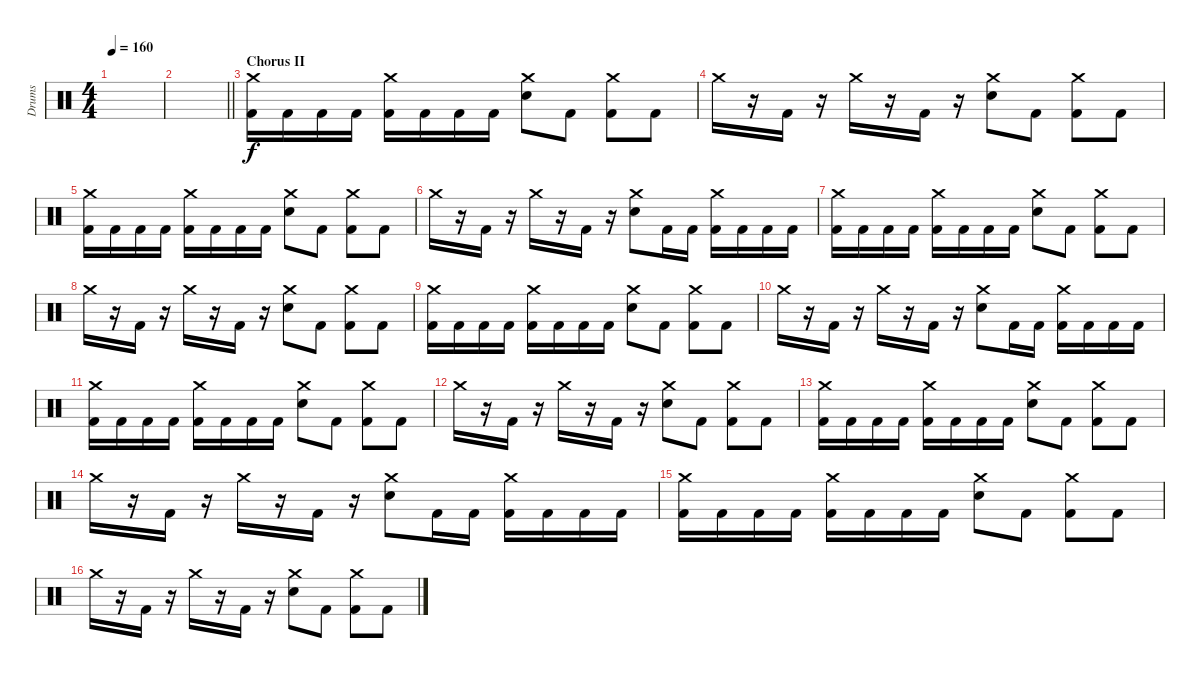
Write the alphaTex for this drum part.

\track ("Drums" "Drums") {instrument percussion}
\staff {score}
\articulation defaults
\ts (4 4)
\tempo 160
\clef neutral
\ks c
|
\barLineRight lightlight
|
\section ("" "Chorus II")
("Crash medium (hit)" "Kick (hit) 2").16 "Kick (hit) 2".16 "Kick (hit) 2".16 "Kick (hit) 2".16 ("Crash medium (hit)" "Kick (hit) 2").16 "Kick (hit) 2".16 "Kick (hit) 2".16 "Kick (hit) 2".16 ("Crash medium (hit)" "Snare (hit) 2").8 "Kick (hit) 2".8 ("Crash medium (hit)" "Kick (hit) 2").8 "Kick (hit) 2".8 |
"Crash medium (hit)".16 r.16 "Kick (hit) 2".16 r.16 "Crash medium (hit)".16 r.16 "Kick (hit) 2".16 r.16 ("Crash medium (hit)" "Snare (hit) 2").8 "Kick (hit) 2".8 ("Crash medium (hit)" "Kick (hit) 2").8 "Kick (hit) 2".8 |
("Crash medium (hit)" "Kick (hit) 2").16 "Kick (hit) 2".16 "Kick (hit) 2".16 "Kick (hit) 2".16 ("Crash medium (hit)" "Kick (hit) 2").16 "Kick (hit) 2".16 "Kick (hit) 2".16 "Kick (hit) 2".16 ("Crash medium (hit)" "Snare (hit) 2").8 "Kick (hit) 2".8 ("Crash medium (hit)" "Kick (hit) 2").8 "Kick (hit) 2".8 |
"Crash medium (hit)".16 r.16 "Kick (hit) 2".16 r.16 "Crash medium (hit)".16 r.16 "Kick (hit) 2".16 r.16 ("Crash medium (hit)" "Snare (hit) 2").8 "Kick (hit) 2".16 "Kick (hit) 2".16 ("Crash medium (hit)" "Kick (hit) 2").16 "Kick (hit) 2".16 "Kick (hit) 2".16 "Kick (hit) 2".16 |
("Crash medium (hit)" "Kick (hit) 2").16 "Kick (hit) 2".16 "Kick (hit) 2".16 "Kick (hit) 2".16 ("Crash medium (hit)" "Kick (hit) 2").16 "Kick (hit) 2".16 "Kick (hit) 2".16 "Kick (hit) 2".16 ("Crash medium (hit)" "Snare (hit) 2").8 "Kick (hit) 2".8 ("Crash medium (hit)" "Kick (hit) 2").8 "Kick (hit) 2".8 |
"Crash medium (hit)".16 r.16 "Kick (hit) 2".16 r.16 "Crash medium (hit)".16 r.16 "Kick (hit) 2".16 r.16 ("Crash medium (hit)" "Snare (hit) 2").8 "Kick (hit) 2".8 ("Crash medium (hit)" "Kick (hit) 2").8 "Kick (hit) 2".8 |
("Crash medium (hit)" "Kick (hit) 2").16 "Kick (hit) 2".16 "Kick (hit) 2".16 "Kick (hit) 2".16 ("Crash medium (hit)" "Kick (hit) 2").16 "Kick (hit) 2".16 "Kick (hit) 2".16 "Kick (hit) 2".16 ("Crash medium (hit)" "Snare (hit) 2").8 "Kick (hit) 2".8 ("Crash medium (hit)" "Kick (hit) 2").8 "Kick (hit) 2".8 |
"Crash medium (hit)".16 r.16 "Kick (hit) 2".16 r.16 "Crash medium (hit)".16 r.16 "Kick (hit) 2".16 r.16 ("Crash medium (hit)" "Snare (hit) 2").8 "Kick (hit) 2".16 "Kick (hit) 2".16 ("Crash medium (hit)" "Kick (hit) 2").16 "Kick (hit) 2".16 "Kick (hit) 2".16 "Kick (hit) 2".16 |
("Crash medium (hit)" "Kick (hit) 2").16 "Kick (hit) 2".16 "Kick (hit) 2".16 "Kick (hit) 2".16 ("Crash medium (hit)" "Kick (hit) 2").16 "Kick (hit) 2".16 "Kick (hit) 2".16 "Kick (hit) 2".16 ("Crash medium (hit)" "Snare (hit) 2").8 "Kick (hit) 2".8 ("Crash medium (hit)" "Kick (hit) 2").8 "Kick (hit) 2".8 |
"Crash medium (hit)".16 r.16 "Kick (hit) 2".16 r.16 "Crash medium (hit)".16 r.16 "Kick (hit) 2".16 r.16 ("Crash medium (hit)" "Snare (hit) 2").8 "Kick (hit) 2".8 ("Crash medium (hit)" "Kick (hit) 2").8 "Kick (hit) 2".8 |
("Crash medium (hit)" "Kick (hit) 2").16 "Kick (hit) 2".16 "Kick (hit) 2".16 "Kick (hit) 2".16 ("Crash medium (hit)" "Kick (hit) 2").16 "Kick (hit) 2".16 "Kick (hit) 2".16 "Kick (hit) 2".16 ("Crash medium (hit)" "Snare (hit) 2").8 "Kick (hit) 2".8 ("Crash medium (hit)" "Kick (hit) 2").8 "Kick (hit) 2".8 |
"Crash medium (hit)".16 r.16 "Kick (hit) 2".16 r.16 "Crash medium (hit)".16 r.16 "Kick (hit) 2".16 r.16 ("Crash medium (hit)" "Snare (hit) 2").8 "Kick (hit) 2".16 "Kick (hit) 2".16 ("Crash medium (hit)" "Kick (hit) 2").16 "Kick (hit) 2".16 "Kick (hit) 2".16 "Kick (hit) 2".16 |
("Crash medium (hit)" "Kick (hit) 2").16 "Kick (hit) 2".16 "Kick (hit) 2".16 "Kick (hit) 2".16 ("Crash medium (hit)" "Kick (hit) 2").16 "Kick (hit) 2".16 "Kick (hit) 2".16 "Kick (hit) 2".16 ("Crash medium (hit)" "Snare (hit) 2").8 "Kick (hit) 2".8 ("Crash medium (hit)" "Kick (hit) 2").8 "Kick (hit) 2".8 |
"Crash medium (hit)".16 r.16 "Kick (hit) 2".16 r.16 "Crash medium (hit)".16 r.16 "Kick (hit) 2".16 r.16 ("Crash medium (hit)" "Snare (hit) 2").8 "Kick (hit) 2".8 ("Crash medium (hit)" "Kick (hit) 2").8 "Kick (hit) 2".8
